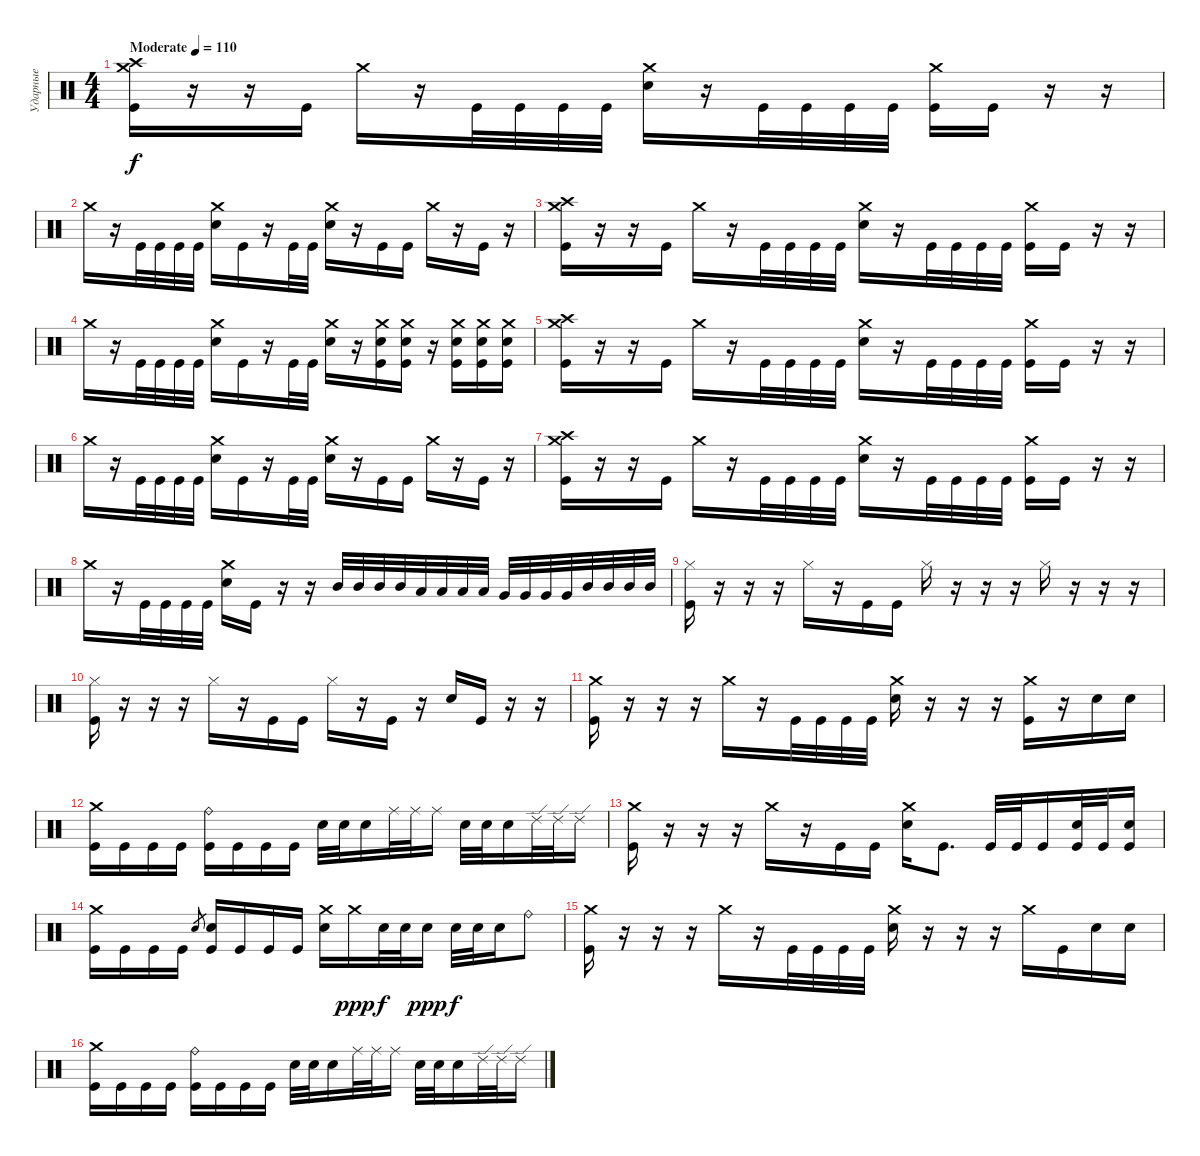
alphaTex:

\track ("Ударные" "Ударные") {instrument percussion}
\staff {score}
\articulation defaults
\ts (4 4)
\tempo (110 "Moderate")
\clef neutral
\ks c
("Crash medium (hit)" "Crash high (hit)" "Kick (hit)").16{dy f} r.16 r.16 "Kick (hit)".16 "Crash medium (hit)".16 r.16 "Kick (hit)".32 "Kick (hit)".32 "Kick (hit)".32 "Kick (hit)".32 ("Crash medium (hit)" "Snare (hit) 2").16 r.16 "Kick (hit)".32 "Kick (hit)".32 "Kick (hit)".32 "Kick (hit)".32 ("Crash medium (hit)" "Kick (hit)").16 "Kick (hit)".16 r.16 r.16 |
"Crash medium (hit)".16 r.16 "Kick (hit)".32 "Kick (hit)".32 "Kick (hit)".32 "Kick (hit)".32 ("Crash medium (hit)" "Snare (hit) 2").16 "Kick (hit)".16 r.16 "Kick (hit)".32 "Kick (hit)".32 ("Crash medium (hit)" "Snare (hit) 2").16 r.16 "Kick (hit)".16 "Kick (hit)".16 "Crash medium (hit)".16 r.16 "Kick (hit)".16 r.16 |
("Crash medium (hit)" "Crash high (hit)" "Kick (hit)").16 r.16 r.16 "Kick (hit)".16 "Crash medium (hit)".16 r.16 "Kick (hit)".32 "Kick (hit)".32 "Kick (hit)".32 "Kick (hit)".32 ("Crash medium (hit)" "Snare (hit) 2").16 r.16 "Kick (hit)".32 "Kick (hit)".32 "Kick (hit)".32 "Kick (hit)".32 ("Crash medium (hit)" "Kick (hit)").16 "Kick (hit)".16 r.16 r.16 |
"Crash medium (hit)".16 r.16 "Kick (hit)".32 "Kick (hit)".32 "Kick (hit)".32 "Kick (hit)".32 ("Crash medium (hit)" "Snare (hit) 2").16 "Kick (hit)".16 r.16 "Kick (hit)".32 "Kick (hit)".32 ("Crash medium (hit)" "Snare (hit) 2").16 r.16 ("Crash medium (hit)" "Snare (hit) 2" "Kick (hit)").16 ("Crash medium (hit)" "Snare (hit) 2" "Kick (hit)").16 r.16 ("Crash medium (hit)" "Snare (hit) 2" "Kick (hit)").16 ("Crash medium (hit)" "Snare (hit) 2" "Kick (hit)").16 ("Crash medium (hit)" "Snare (hit) 2" "Kick (hit)").16 |
("Crash medium (hit)" "Crash high (hit)" "Kick (hit)").16 r.16 r.16 "Kick (hit)".16 "Crash medium (hit)".16 r.16 "Kick (hit)".32 "Kick (hit)".32 "Kick (hit)".32 "Kick (hit)".32 ("Crash medium (hit)" "Snare (hit) 2").16 r.16 "Kick (hit)".32 "Kick (hit)".32 "Kick (hit)".32 "Kick (hit)".32 ("Crash medium (hit)" "Kick (hit)").16 "Kick (hit)".16 r.16 r.16 |
"Crash medium (hit)".16 r.16 "Kick (hit)".32 "Kick (hit)".32 "Kick (hit)".32 "Kick (hit)".32 ("Crash medium (hit)" "Snare (hit) 2").16 "Kick (hit)".16 r.16 "Kick (hit)".32 "Kick (hit)".32 ("Crash medium (hit)" "Snare (hit) 2").16 r.16 "Kick (hit)".16 "Kick (hit)".16 "Crash medium (hit)".16 r.16 "Kick (hit)".16 r.16 |
("Crash medium (hit)" "Crash high (hit)" "Kick (hit)").16 r.16 r.16 "Kick (hit)".16 "Crash medium (hit)".16 r.16 "Kick (hit)".32 "Kick (hit)".32 "Kick (hit)".32 "Kick (hit)".32 ("Crash medium (hit)" "Snare (hit) 2").16 r.16 "Kick (hit)".32 "Kick (hit)".32 "Kick (hit)".32 "Kick (hit)".32 ("Crash medium (hit)" "Kick (hit)").16 "Kick (hit)".16 r.16 r.16 |
"Crash medium (hit)".16 r.16 "Kick (hit)".32 "Kick (hit)".32 "Kick (hit)".32 "Kick (hit)".32 ("Crash medium (hit)" "Snare (hit) 2").16 "Kick (hit)".16 r.16 r.16 "Mid Tom (hit)".32 "Mid Tom (hit)".32 "Mid Tom (hit)".32 "Mid Tom (hit)".32 "Low Tom (hit)".32 "Low Tom (hit)".32 "Low Tom (hit)".32 "Low Tom (hit)".32 "Very Low Tom (hit)".32 "Very Low Tom (hit)".32 "Very Low Tom (hit)".32 "Very Low Tom (hit)".32 "Mid Tom (hit)".32 "Mid Tom (hit)".32 "Mid Tom (hit)".32 "Mid Tom (hit)".32 |
("Hi-Hat (closed)" "Kick (hit)").16 r.16 r.16 r.16 "Hi-Hat (closed)".16 r.16 "Kick (hit)".16 "Kick (hit)".16 "Hi-Hat (closed)".16 r.16 r.16 r.16 "Hi-Hat (closed)".16 r.16 r.16 r.16 |
("Hi-Hat (closed)" "Kick (hit)").16 r.16 r.16 r.16 "Hi-Hat (closed)".16 r.16 "Kick (hit)".16 "Kick (hit)".16 "Hi-Hat (closed)".16 r.16 "Kick (hit)".16 r.16 "Snare (hit) 2".16 "Kick (hit)".16 r.16 r.16 |
("Crash medium (hit)" "Kick (hit)").16 r.16 r.16 r.16 "Crash medium (hit)".16 r.16 "Kick (hit)".32 "Kick (hit)".32 "Kick (hit)".32 "Kick (hit)".32 ("Crash medium (hit)" "Snare (hit) 2").16 r.16 r.16 r.16 ("Crash medium (hit)" "Kick (hit)").16 r.16 "Snare (hit) 2".16 "Snare (hit) 2".16 |
("Crash medium (hit)" "Kick (hit)").16 "Kick (hit)".16 "Kick (hit)".16 "Kick (hit)".16 ("Ride (bell)" "Kick (hit)").16 "Kick (hit)".16 "Kick (hit)".16 "Kick (hit)".16 "Snare (hit) 2".32 "Snare (hit) 2".32 "Snare (hit) 2".16 "Ride (middle)".32 "Ride (middle)".32 "Ride (middle)".16 "Snare (hit) 2".32 "Snare (hit) 2".32 "Snare (hit) 2".16 "Ride (edge) 2".32 "Ride (edge) 2".32 "Ride (edge) 2".16 |
("Crash medium (hit)" "Kick (hit)").16 r.16 r.16 r.16 "Crash medium (hit)".16 r.16 "Kick (hit)".16 "Kick (hit)".16 ("Crash medium (hit)" "Snare (hit) 2").16 "Kick (hit)".8{d} "Kick (hit)".32 "Kick (hit)".32 "Kick (hit)".16 ("Snare (hit) 2" "Kick (hit)").32 "Kick (hit)".32 ("Snare (hit) 2" "Kick (hit)").16 |
("Crash medium (hit)" "Kick (hit)").16 "Kick (hit)".16 "Kick (hit)".16 "Kick (hit)".16 "Snare (hit) 2".8{gr} ("Snare (hit) 2" "Kick (hit)").16 "Kick (hit)".16 "Kick (hit)".16 "Kick (hit)".16 ("Crash medium (hit)" "Snare (hit) 2").16 "Crash medium (hit)".16{dy ppp} "Snare (hit) 2".32{dy f} "Snare (hit) 2".32 "Snare (hit) 2".16{dy ppp} "Snare (hit) 2".32{dy f} "Snare (hit) 2".32 "Snare (hit) 2".16 "Ride (bell)".8 |
("Crash medium (hit)" "Kick (hit)").16 r.16 r.16 r.16 "Crash medium (hit)".16 r.16 "Kick (hit)".32 "Kick (hit)".32 "Kick (hit)".32 "Kick (hit)".32 ("Crash medium (hit)" "Snare (hit) 2").16 r.16 r.16 r.16 "Crash medium (hit)".16 "Kick (hit)".16 "Snare (hit) 2".16 "Snare (hit) 2".16 |
("Crash medium (hit)" "Kick (hit)").16 "Kick (hit)".16 "Kick (hit)".16 "Kick (hit)".16 ("Ride (bell)" "Kick (hit)").16 "Kick (hit)".16 "Kick (hit)".16 "Kick (hit)".16 "Snare (hit) 2".32 "Snare (hit) 2".32 "Snare (hit) 2".16 "Ride (middle)".32 "Ride (middle)".32 "Ride (middle)".16 "Snare (hit) 2".32 "Snare (hit) 2".32 "Snare (hit) 2".16 "Ride (edge) 2".32 "Ride (edge) 2".32 "Ride (edge) 2".16
